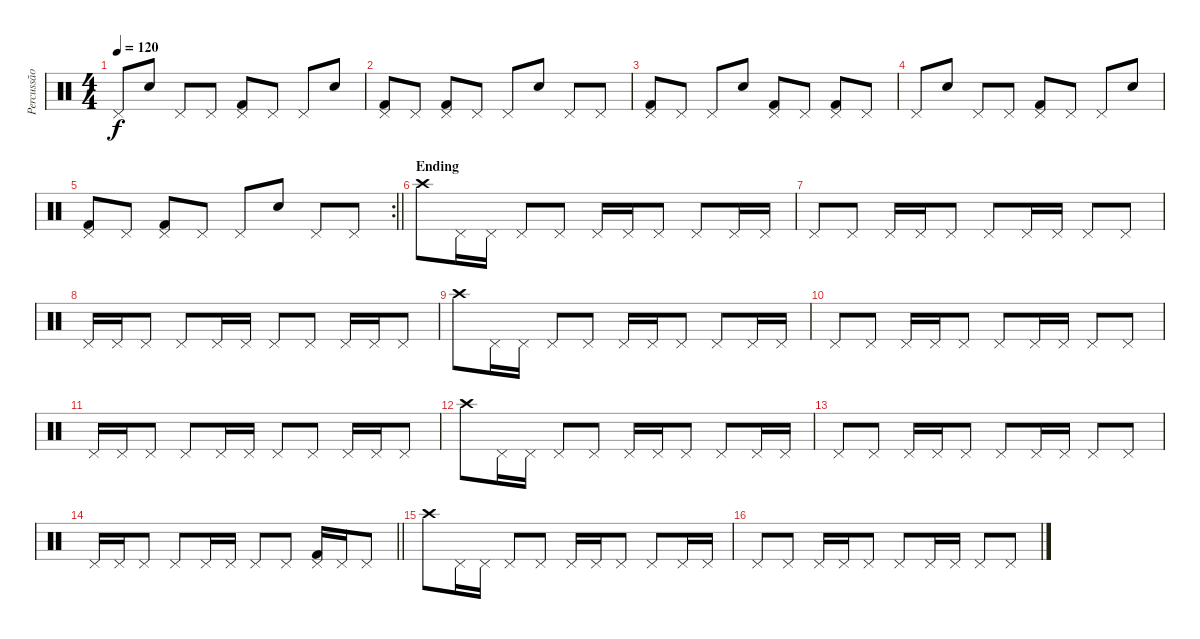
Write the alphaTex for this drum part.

\track ("Percussão" "Percussão") {instrument percussion}
\staff {score}
\articulation defaults
\ts (4 4)
\tempo 120
\clef neutral
\ks c "Pedal Hi-Hat (hit)".8{dy f} "Snare (hit) 2".8 "Pedal Hi-Hat (hit)".8 "Pedal Hi-Hat (hit)".8
("Pedal Hi-Hat (hit)" "Kick (hit) 2").8 "Pedal Hi-Hat (hit)".8 "Pedal Hi-Hat (hit)".8 "Snare (hit) 2".8 |
("Pedal Hi-Hat (hit)" "Kick (hit) 2").8 "Pedal Hi-Hat (hit)".8 ("Pedal Hi-Hat (hit)" "Kick (hit) 2").8 "Pedal Hi-Hat (hit)".8 "Pedal Hi-Hat (hit)".8 "Snare (hit) 2".8 "Pedal Hi-Hat (hit)".8 "Pedal Hi-Hat (hit)".8 |
("Pedal Hi-Hat (hit)" "Kick (hit) 2").8 "Pedal Hi-Hat (hit)".8 "Pedal Hi-Hat (hit)".8 "Snare (hit) 2".8 ("Pedal Hi-Hat (hit)" "Kick (hit) 2").8 "Pedal Hi-Hat (hit)".8 ("Pedal Hi-Hat (hit)" "Kick (hit) 2").8 "Pedal Hi-Hat (hit)".8 |
"Pedal Hi-Hat (hit)".8 "Snare (hit) 2".8 "Pedal Hi-Hat (hit)".8 "Pedal Hi-Hat (hit)".8 ("Pedal Hi-Hat (hit)" "Kick (hit) 2").8 "Pedal Hi-Hat (hit)".8 "Pedal Hi-Hat (hit)".8 "Snare (hit) 2".8 |
\rc 2
\barLineRight lightlight
("Pedal Hi-Hat (hit)" "Kick (hit) 2").8 "Pedal Hi-Hat (hit)".8 ("Pedal Hi-Hat (hit)" "Kick (hit) 2").8 "Pedal Hi-Hat (hit)".8 "Pedal Hi-Hat (hit)".8 "Snare (hit) 2".8 "Pedal Hi-Hat (hit)".8 "Pedal Hi-Hat (hit)".8 |
\section ("" "Ending")
"Crash high (hit)".8 "Pedal Hi-Hat (hit)".16 "Pedal Hi-Hat (hit)".16 "Pedal Hi-Hat (hit)".8 "Pedal Hi-Hat (hit)".8 "Pedal Hi-Hat (hit)".16 "Pedal Hi-Hat (hit)".16 "Pedal Hi-Hat (hit)".8 "Pedal Hi-Hat (hit)".8 "Pedal Hi-Hat (hit)".16 "Pedal Hi-Hat (hit)".16 |
"Pedal Hi-Hat (hit)".8 "Pedal Hi-Hat (hit)".8 "Pedal Hi-Hat (hit)".16 "Pedal Hi-Hat (hit)".16 "Pedal Hi-Hat (hit)".8 "Pedal Hi-Hat (hit)".8 "Pedal Hi-Hat (hit)".16 "Pedal Hi-Hat (hit)".16 "Pedal Hi-Hat (hit)".8 "Pedal Hi-Hat (hit)".8 |
"Pedal Hi-Hat (hit)".16 "Pedal Hi-Hat (hit)".16 "Pedal Hi-Hat (hit)".8 "Pedal Hi-Hat (hit)".8 "Pedal Hi-Hat (hit)".16 "Pedal Hi-Hat (hit)".16 "Pedal Hi-Hat (hit)".8 "Pedal Hi-Hat (hit)".8 "Pedal Hi-Hat (hit)".16 "Pedal Hi-Hat (hit)".16 "Pedal Hi-Hat (hit)".8 |
"Crash high (hit)".8 "Pedal Hi-Hat (hit)".16 "Pedal Hi-Hat (hit)".16 "Pedal Hi-Hat (hit)".8 "Pedal Hi-Hat (hit)".8 "Pedal Hi-Hat (hit)".16 "Pedal Hi-Hat (hit)".16 "Pedal Hi-Hat (hit)".8 "Pedal Hi-Hat (hit)".8 "Pedal Hi-Hat (hit)".16 "Pedal Hi-Hat (hit)".16 |
"Pedal Hi-Hat (hit)".8 "Pedal Hi-Hat (hit)".8 "Pedal Hi-Hat (hit)".16 "Pedal Hi-Hat (hit)".16 "Pedal Hi-Hat (hit)".8 "Pedal Hi-Hat (hit)".8 "Pedal Hi-Hat (hit)".16 "Pedal Hi-Hat (hit)".16 "Pedal Hi-Hat (hit)".8 "Pedal Hi-Hat (hit)".8 |
"Pedal Hi-Hat (hit)".16 "Pedal Hi-Hat (hit)".16 "Pedal Hi-Hat (hit)".8 "Pedal Hi-Hat (hit)".8 "Pedal Hi-Hat (hit)".16 "Pedal Hi-Hat (hit)".16 "Pedal Hi-Hat (hit)".8 "Pedal Hi-Hat (hit)".8 "Pedal Hi-Hat (hit)".16 "Pedal Hi-Hat (hit)".16 "Pedal Hi-Hat (hit)".8 |
"Crash high (hit)".8 "Pedal Hi-Hat (hit)".16 "Pedal Hi-Hat (hit)".16 "Pedal Hi-Hat (hit)".8 "Pedal Hi-Hat (hit)".8 "Pedal Hi-Hat (hit)".16 "Pedal Hi-Hat (hit)".16 "Pedal Hi-Hat (hit)".8 "Pedal Hi-Hat (hit)".8 "Pedal Hi-Hat (hit)".16 "Pedal Hi-Hat (hit)".16 |
"Pedal Hi-Hat (hit)".8 "Pedal Hi-Hat (hit)".8 "Pedal Hi-Hat (hit)".16 "Pedal Hi-Hat (hit)".16 "Pedal Hi-Hat (hit)".8 "Pedal Hi-Hat (hit)".8 "Pedal Hi-Hat (hit)".16 "Pedal Hi-Hat (hit)".16 "Pedal Hi-Hat (hit)".8 "Pedal Hi-Hat (hit)".8 |
\barLineRight lightlight "Pedal Hi-Hat (hit)".16 "Pedal Hi-Hat (hit)".16 "Pedal Hi-Hat (hit)".8 "Pedal Hi-Hat (hit)".8 "Pedal Hi-Hat (hit)".16 "Pedal Hi-Hat (hit)".16 "Pedal Hi-Hat (hit)".8 "Pedal Hi-Hat (hit)".8
("Pedal Hi-Hat (hit)" "Kick (hit) 2").16 "Pedal Hi-Hat (hit)".16 "Pedal Hi-Hat (hit)".8 |
"Crash high (hit)".8 "Pedal Hi-Hat (hit)".16 "Pedal Hi-Hat (hit)".16 "Pedal Hi-Hat (hit)".8 "Pedal Hi-Hat (hit)".8 "Pedal Hi-Hat (hit)".16 "Pedal Hi-Hat (hit)".16 "Pedal Hi-Hat (hit)".8 "Pedal Hi-Hat (hit)".8 "Pedal Hi-Hat (hit)".16 "Pedal Hi-Hat (hit)".16 |
"Pedal Hi-Hat (hit)".8 "Pedal Hi-Hat (hit)".8 "Pedal Hi-Hat (hit)".16 "Pedal Hi-Hat (hit)".16 "Pedal Hi-Hat (hit)".8 "Pedal Hi-Hat (hit)".8 "Pedal Hi-Hat (hit)".16 "Pedal Hi-Hat (hit)".16 "Pedal Hi-Hat (hit)".8 "Pedal Hi-Hat (hit)".8
